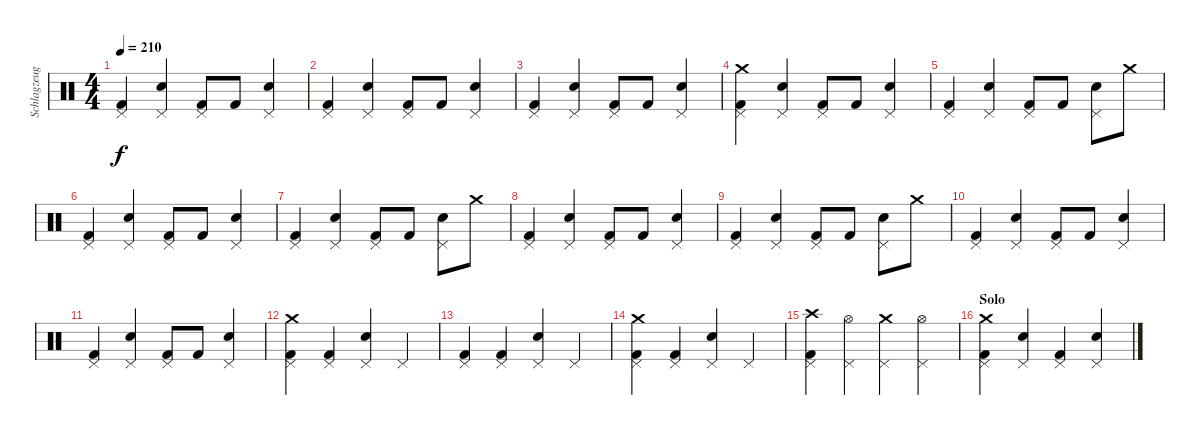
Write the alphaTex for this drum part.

\track ("Schlagzeug" "Schlagzeug") {instrument percussion}
\staff {score}
\articulation defaults
\ts (4 4)
\tempo 210
\clef neutral
\ks c
("Pedal Hi-Hat (hit)" "Kick (hit) 2").4{dy f} ("Pedal Hi-Hat (hit)" "Electric Snare (hit)").4 ("Pedal Hi-Hat (hit)" "Kick (hit) 2").8 "Kick (hit) 2".8 ("Pedal Hi-Hat (hit)" "Electric Snare (hit)").4 |
("Pedal Hi-Hat (hit)" "Kick (hit) 2").4 ("Pedal Hi-Hat (hit)" "Electric Snare (hit)").4 ("Pedal Hi-Hat (hit)" "Kick (hit) 2").8 "Kick (hit) 2".8 ("Pedal Hi-Hat (hit)" "Electric Snare (hit)").4 |
("Pedal Hi-Hat (hit)" "Kick (hit) 2").4 ("Pedal Hi-Hat (hit)" "Electric Snare (hit)").4 ("Pedal Hi-Hat (hit)" "Kick (hit) 2").8 "Kick (hit) 2".8 ("Pedal Hi-Hat (hit)" "Electric Snare (hit)").4 |
("Pedal Hi-Hat (hit)" "Kick (hit) 2" "Crash medium (hit)").4 ("Pedal Hi-Hat (hit)" "Electric Snare (hit)").4 ("Pedal Hi-Hat (hit)" "Kick (hit) 2").8 "Kick (hit) 2".8 ("Pedal Hi-Hat (hit)" "Electric Snare (hit)").4 |
("Pedal Hi-Hat (hit)" "Kick (hit) 2").4 ("Pedal Hi-Hat (hit)" "Electric Snare (hit)").4 ("Pedal Hi-Hat (hit)" "Kick (hit) 2").8 "Kick (hit) 2".8 ("Pedal Hi-Hat (hit)" "Electric Snare (hit)").8 "Crash medium (hit)".8 |
("Pedal Hi-Hat (hit)" "Kick (hit) 2").4 ("Pedal Hi-Hat (hit)" "Electric Snare (hit)").4 ("Pedal Hi-Hat (hit)" "Kick (hit) 2").8 "Kick (hit) 2".8 ("Pedal Hi-Hat (hit)" "Electric Snare (hit)").4 |
("Pedal Hi-Hat (hit)" "Kick (hit) 2").4 ("Pedal Hi-Hat (hit)" "Electric Snare (hit)").4 ("Pedal Hi-Hat (hit)" "Kick (hit) 2").8 "Kick (hit) 2".8 ("Pedal Hi-Hat (hit)" "Electric Snare (hit)").8 "Crash medium (hit)".8 |
("Pedal Hi-Hat (hit)" "Kick (hit) 2").4 ("Pedal Hi-Hat (hit)" "Electric Snare (hit)").4 ("Pedal Hi-Hat (hit)" "Kick (hit) 2").8 "Kick (hit) 2".8 ("Pedal Hi-Hat (hit)" "Electric Snare (hit)").4 |
("Pedal Hi-Hat (hit)" "Kick (hit) 2").4 ("Pedal Hi-Hat (hit)" "Electric Snare (hit)").4 ("Pedal Hi-Hat (hit)" "Kick (hit) 2").8 "Kick (hit) 2".8 ("Pedal Hi-Hat (hit)" "Electric Snare (hit)").8 "Crash medium (hit)".8 |
("Pedal Hi-Hat (hit)" "Kick (hit) 2").4 ("Pedal Hi-Hat (hit)" "Electric Snare (hit)").4 ("Pedal Hi-Hat (hit)" "Kick (hit) 2").8 "Kick (hit) 2".8 ("Pedal Hi-Hat (hit)" "Electric Snare (hit)").4 |
("Pedal Hi-Hat (hit)" "Kick (hit) 2").4 ("Pedal Hi-Hat (hit)" "Electric Snare (hit)").4 ("Pedal Hi-Hat (hit)" "Kick (hit) 2").8 "Kick (hit) 2".8 ("Pedal Hi-Hat (hit)" "Electric Snare (hit)").4 |
("Pedal Hi-Hat (hit)" "Kick (hit) 2" "Crash medium (hit)").4 ("Pedal Hi-Hat (hit)" "Kick (hit) 2").4 ("Pedal Hi-Hat (hit)" "Electric Snare (hit)").4 "Pedal Hi-Hat (hit)".4 |
("Pedal Hi-Hat (hit)" "Kick (hit) 2").4 ("Pedal Hi-Hat (hit)" "Kick (hit) 2").4 ("Pedal Hi-Hat (hit)" "Electric Snare (hit)").4 "Pedal Hi-Hat (hit)".4 |
("Pedal Hi-Hat (hit)" "Kick (hit) 2" "Crash medium (hit)").4 ("Pedal Hi-Hat (hit)" "Kick (hit) 2").4 ("Pedal Hi-Hat (hit)" "Electric Snare (hit)").4 "Pedal Hi-Hat (hit)".4 |
("Pedal Hi-Hat (hit)" "Kick (hit) 2" "Crash high (hit)").4 ("Pedal Hi-Hat (hit)" "Hi-Hat (open)").4 ("Pedal Hi-Hat (hit)" "Crash medium (hit)").4 ("Pedal Hi-Hat (hit)" "Hi-Hat (open)").4 |
\section ("" "Solo")
("Pedal Hi-Hat (hit)" "Crash medium (hit)" "Kick (hit) 2").4 ("Pedal Hi-Hat (hit)" "Electric Snare (hit)").4 ("Pedal Hi-Hat (hit)" "Kick (hit) 2").4 ("Pedal Hi-Hat (hit)" "Electric Snare (hit)").4
